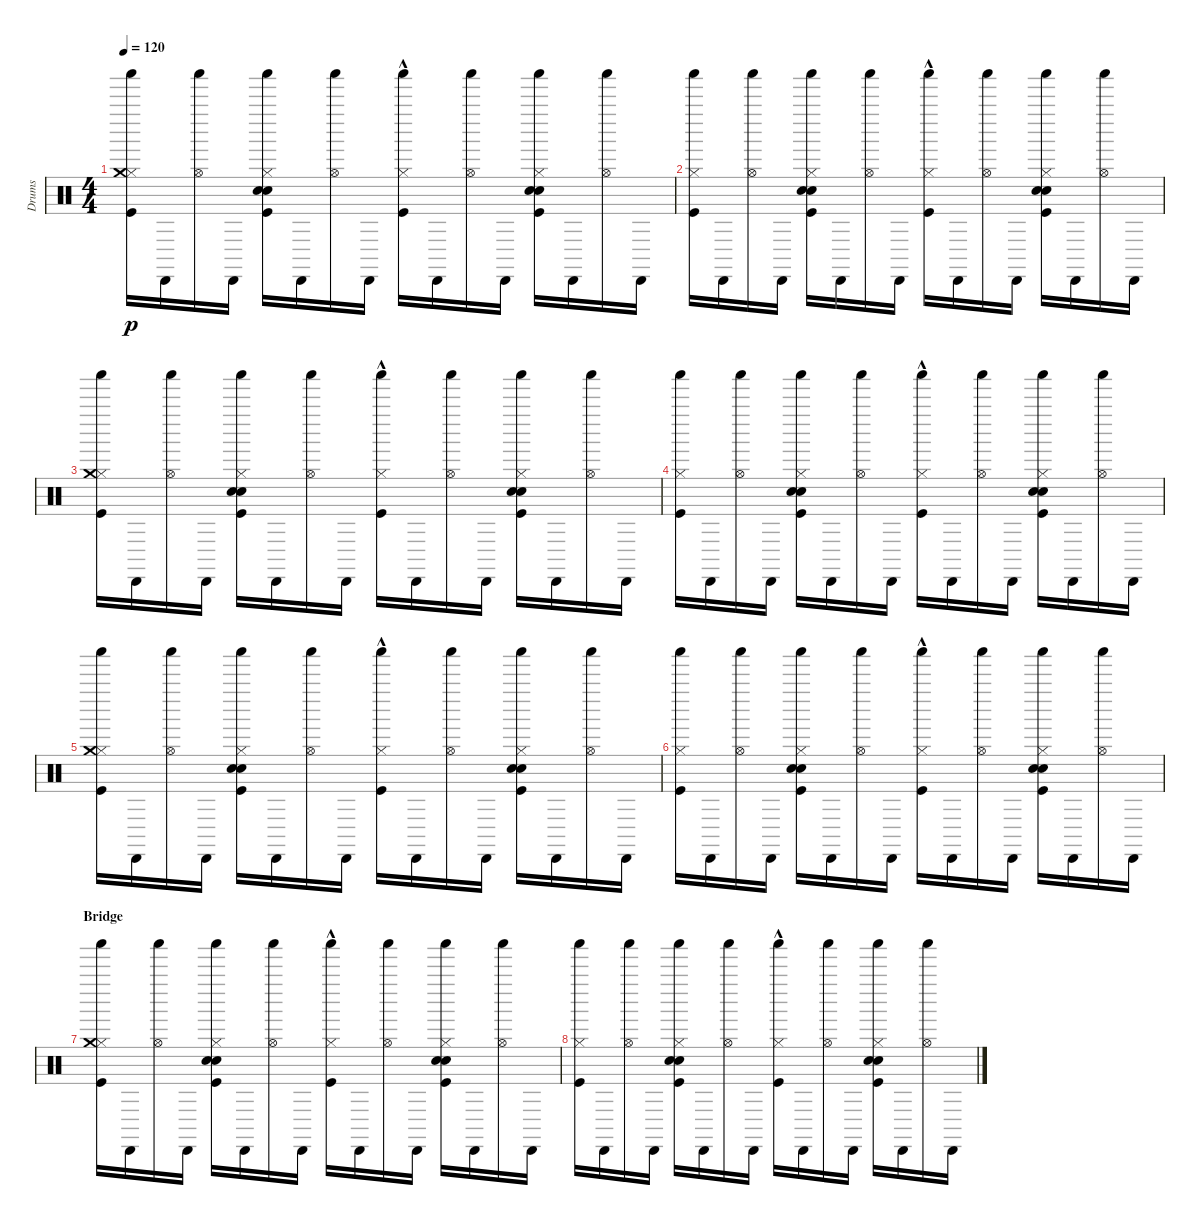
\track ("Drums" "Drums") {instrument percussion}
\staff {score}
\articulation defaults
\ts (4 4)
\tempo 120
\clef neutral
\ks c
("Kick (hit)" "Hi-Hat (closed)" "Crash medium (hit)" "Shaker (hit)").16{dy p} "Cabasa (hit)".16 ("Hi-Hat (open)" "Shaker (hit)").16 "Cabasa (hit)".16 ("Kick (hit)" "Snare (hit) 2" "Electric Snare (hit)" "Hi-Hat (closed)" "Shaker (hit)").16 "Cabasa (hit)".16 ("Hi-Hat (open)" "Shaker (hit)").16 "Cabasa (hit)".16 ("Kick (hit)" "Hi-Hat (closed)" "Shaker (hit)"{hac}).16 "Cabasa (hit)".16 ("Hi-Hat (open)" "Shaker (hit)").16 "Cabasa (hit)".16 ("Kick (hit)" "Snare (hit) 2" "Electric Snare (hit)" "Hi-Hat (closed)" "Shaker (hit)").16 "Cabasa (hit)".16 ("Hi-Hat (open)" "Shaker (hit)").16 "Cabasa (hit)".16 |
("Kick (hit)" "Hi-Hat (closed)" "Shaker (hit)").16 "Cabasa (hit)".16 ("Hi-Hat (open)" "Shaker (hit)").16 "Cabasa (hit)".16 ("Kick (hit)" "Snare (hit) 2" "Electric Snare (hit)" "Hi-Hat (closed)" "Shaker (hit)").16 "Cabasa (hit)".16 ("Hi-Hat (open)" "Shaker (hit)").16 "Cabasa (hit)".16 ("Kick (hit)" "Hi-Hat (closed)" "Shaker (hit)"{hac}).16 "Cabasa (hit)".16 ("Hi-Hat (open)" "Shaker (hit)").16 "Cabasa (hit)".16 ("Kick (hit)" "Snare (hit) 2" "Electric Snare (hit)" "Hi-Hat (closed)" "Shaker (hit)").16 "Cabasa (hit)".16 ("Hi-Hat (open)" "Shaker (hit)").16 "Cabasa (hit)".16 |
("Kick (hit)" "Hi-Hat (closed)" "Crash medium (hit)" "Shaker (hit)").16 "Cabasa (hit)".16 ("Hi-Hat (open)" "Shaker (hit)").16 "Cabasa (hit)".16 ("Kick (hit)" "Snare (hit) 2" "Electric Snare (hit)" "Hi-Hat (closed)" "Shaker (hit)").16 "Cabasa (hit)".16 ("Hi-Hat (open)" "Shaker (hit)").16 "Cabasa (hit)".16 ("Kick (hit)" "Hi-Hat (closed)" "Shaker (hit)"{hac}).16 "Cabasa (hit)".16 ("Hi-Hat (open)" "Shaker (hit)").16 "Cabasa (hit)".16 ("Kick (hit)" "Snare (hit) 2" "Electric Snare (hit)" "Hi-Hat (closed)" "Shaker (hit)").16 "Cabasa (hit)".16 ("Hi-Hat (open)" "Shaker (hit)").16 "Cabasa (hit)".16 |
("Kick (hit)" "Hi-Hat (closed)" "Shaker (hit)").16 "Cabasa (hit)".16 ("Hi-Hat (open)" "Shaker (hit)").16 "Cabasa (hit)".16 ("Kick (hit)" "Snare (hit) 2" "Electric Snare (hit)" "Hi-Hat (closed)" "Shaker (hit)").16 "Cabasa (hit)".16 ("Hi-Hat (open)" "Shaker (hit)").16 "Cabasa (hit)".16 ("Kick (hit)" "Hi-Hat (closed)" "Shaker (hit)"{hac}).16 "Cabasa (hit)".16 ("Hi-Hat (open)" "Shaker (hit)").16 "Cabasa (hit)".16 ("Kick (hit)" "Snare (hit) 2" "Electric Snare (hit)" "Hi-Hat (closed)" "Shaker (hit)").16 "Cabasa (hit)".16 ("Hi-Hat (open)" "Shaker (hit)").16 "Cabasa (hit)".16 |
("Kick (hit)" "Hi-Hat (closed)" "Crash medium (hit)" "Shaker (hit)").16 "Cabasa (hit)".16 ("Hi-Hat (open)" "Shaker (hit)").16 "Cabasa (hit)".16 ("Kick (hit)" "Snare (hit) 2" "Electric Snare (hit)" "Hi-Hat (closed)" "Shaker (hit)").16 "Cabasa (hit)".16 ("Hi-Hat (open)" "Shaker (hit)").16 "Cabasa (hit)".16 ("Kick (hit)" "Hi-Hat (closed)" "Shaker (hit)"{hac}).16 "Cabasa (hit)".16 ("Hi-Hat (open)" "Shaker (hit)").16 "Cabasa (hit)".16 ("Kick (hit)" "Snare (hit) 2" "Electric Snare (hit)" "Hi-Hat (closed)" "Shaker (hit)").16 "Cabasa (hit)".16 ("Hi-Hat (open)" "Shaker (hit)").16 "Cabasa (hit)".16 |
("Kick (hit)" "Hi-Hat (closed)" "Shaker (hit)").16 "Cabasa (hit)".16 ("Hi-Hat (open)" "Shaker (hit)").16 "Cabasa (hit)".16 ("Kick (hit)" "Snare (hit) 2" "Electric Snare (hit)" "Hi-Hat (closed)" "Shaker (hit)").16 "Cabasa (hit)".16 ("Hi-Hat (open)" "Shaker (hit)").16 "Cabasa (hit)".16 ("Kick (hit)" "Hi-Hat (closed)" "Shaker (hit)"{hac}).16 "Cabasa (hit)".16 ("Hi-Hat (open)" "Shaker (hit)").16 "Cabasa (hit)".16 ("Kick (hit)" "Snare (hit) 2" "Electric Snare (hit)" "Hi-Hat (closed)" "Shaker (hit)").16 "Cabasa (hit)".16 ("Hi-Hat (open)" "Shaker (hit)").16 "Cabasa (hit)".16 |
\section ("" "Bridge")
("Kick (hit)" "Hi-Hat (closed)" "Crash medium (hit)" "Shaker (hit)").16 "Cabasa (hit)".16 ("Hi-Hat (open)" "Shaker (hit)").16 "Cabasa (hit)".16 ("Kick (hit)" "Snare (hit) 2" "Electric Snare (hit)" "Hi-Hat (closed)" "Shaker (hit)").16 "Cabasa (hit)".16 ("Hi-Hat (open)" "Shaker (hit)").16 "Cabasa (hit)".16 ("Kick (hit)" "Hi-Hat (closed)" "Shaker (hit)"{hac}).16 "Cabasa (hit)".16 ("Hi-Hat (open)" "Shaker (hit)").16 "Cabasa (hit)".16 ("Kick (hit)" "Snare (hit) 2" "Electric Snare (hit)" "Hi-Hat (closed)" "Shaker (hit)").16 "Cabasa (hit)".16 ("Hi-Hat (open)" "Shaker (hit)").16 "Cabasa (hit)".16 |
("Kick (hit)" "Hi-Hat (closed)" "Shaker (hit)").16 "Cabasa (hit)".16 ("Hi-Hat (open)" "Shaker (hit)").16 "Cabasa (hit)".16 ("Kick (hit)" "Snare (hit) 2" "Electric Snare (hit)" "Hi-Hat (closed)" "Shaker (hit)").16 "Cabasa (hit)".16 ("Hi-Hat (open)" "Shaker (hit)").16 "Cabasa (hit)".16 ("Kick (hit)" "Hi-Hat (closed)" "Shaker (hit)"{hac}).16 "Cabasa (hit)".16 ("Hi-Hat (open)" "Shaker (hit)").16 "Cabasa (hit)".16 ("Kick (hit)" "Snare (hit) 2" "Electric Snare (hit)" "Hi-Hat (closed)" "Shaker (hit)").16 "Cabasa (hit)".16 ("Hi-Hat (open)" "Shaker (hit)").16 "Cabasa (hit)".16
